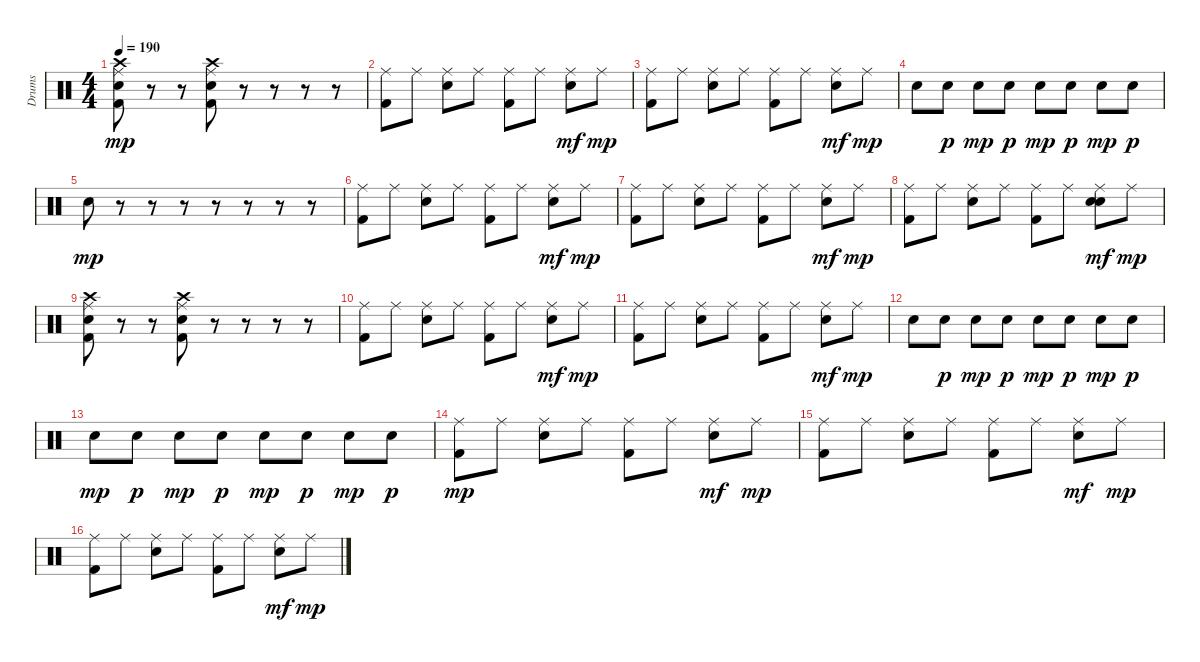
\track ("Drums" "Drums") {instrument percussion}
\staff {score}
\articulation defaults
\ts (4 4)
\tempo 190
\clef neutral
\ks c
("Ride (middle)" "Crash high (hit)" "Electric Snare (hit)" "Kick (hit) 2").8{dy mp} r.8 r.8 ("Ride (middle)" "Crash high (hit)" "Electric Snare (hit)" "Kick (hit) 2").8 r.8 r.8 r.8 r.8 |
("Ride (middle)" "Kick (hit) 2").8 "Ride (middle)".8 ("Ride (middle)" "Electric Snare (hit)").8 "Ride (middle)".8 ("Ride (middle)" "Kick (hit) 2").8 "Ride (middle)".8 ("Ride (middle)" "Electric Snare (hit)").8{dy mf} "Ride (middle)".8{dy mp} |
("Ride (middle)" "Kick (hit) 2").8 "Ride (middle)".8 ("Ride (middle)" "Electric Snare (hit)").8 "Ride (middle)".8 ("Ride (middle)" "Kick (hit) 2").8 "Ride (middle)".8 ("Ride (middle)" "Electric Snare (hit)").8{dy mf} "Ride (middle)".8{dy mp} |
"Electric Snare (hit)".8 "Electric Snare (hit)".8{dy p} "Electric Snare (hit)".8{dy mp} "Electric Snare (hit)".8{dy p} "Electric Snare (hit)".8{dy mp} "Electric Snare (hit)".8{dy p} "Electric Snare (hit)".8{dy mp} "Electric Snare (hit)".8{dy p} |
"Electric Snare (hit)".8{dy mp} r.8 r.8 r.8 r.8 r.8 r.8 r.8 |
("Ride (middle)" "Kick (hit) 2").8 "Ride (middle)".8 ("Ride (middle)" "Electric Snare (hit)").8 "Ride (middle)".8 ("Ride (middle)" "Kick (hit) 2").8 "Ride (middle)".8 ("Ride (middle)" "Electric Snare (hit)").8{dy mf} "Ride (middle)".8{dy mp} |
("Ride (middle)" "Kick (hit) 2").8 "Ride (middle)".8 ("Ride (middle)" "Electric Snare (hit)").8 "Ride (middle)".8 ("Ride (middle)" "Kick (hit) 2").8 "Ride (middle)".8 ("Ride (middle)" "Electric Snare (hit)").8{dy mf} "Ride (middle)".8{dy mp} |
("Ride (middle)" "Kick (hit) 2").8 "Ride (middle)".8 ("Ride (middle)" "Electric Snare (hit)").8 "Ride (middle)".8 ("Ride (middle)" "Kick (hit) 2").8 "Ride (middle)".8 ("Ride (middle)" "Electric Snare (hit)" "Snare (hit) 2").8{dy mf} "Ride (middle)".8{dy mp} |
("Ride (middle)" "Crash high (hit)" "Electric Snare (hit)" "Kick (hit) 2").8 r.8 r.8 ("Ride (middle)" "Crash high (hit)" "Electric Snare (hit)" "Kick (hit) 2").8 r.8 r.8 r.8 r.8 |
("Ride (middle)" "Kick (hit) 2").8 "Ride (middle)".8 ("Ride (middle)" "Electric Snare (hit)").8 "Ride (middle)".8 ("Ride (middle)" "Kick (hit) 2").8 "Ride (middle)".8 ("Ride (middle)" "Electric Snare (hit)").8{dy mf} "Ride (middle)".8{dy mp} |
("Ride (middle)" "Kick (hit) 2").8 "Ride (middle)".8 ("Ride (middle)" "Electric Snare (hit)").8 "Ride (middle)".8 ("Ride (middle)" "Kick (hit) 2").8 "Ride (middle)".8 ("Ride (middle)" "Electric Snare (hit)").8{dy mf} "Ride (middle)".8{dy mp} |
"Electric Snare (hit)".8 "Electric Snare (hit)".8{dy p} "Electric Snare (hit)".8{dy mp} "Electric Snare (hit)".8{dy p} "Electric Snare (hit)".8{dy mp} "Electric Snare (hit)".8{dy p} "Electric Snare (hit)".8{dy mp} "Electric Snare (hit)".8{dy p} |
"Electric Snare (hit)".8{dy mp} "Electric Snare (hit)".8{dy p} "Electric Snare (hit)".8{dy mp} "Electric Snare (hit)".8{dy p} "Electric Snare (hit)".8{dy mp} "Electric Snare (hit)".8{dy p} "Electric Snare (hit)".8{dy mp} "Electric Snare (hit)".8{dy p} |
("Ride (middle)" "Kick (hit) 2").8{dy mp} "Ride (middle)".8 ("Ride (middle)" "Electric Snare (hit)").8 "Ride (middle)".8 ("Ride (middle)" "Kick (hit) 2").8 "Ride (middle)".8 ("Ride (middle)" "Electric Snare (hit)").8{dy mf} "Ride (middle)".8{dy mp} |
("Ride (middle)" "Kick (hit) 2").8 "Ride (middle)".8 ("Ride (middle)" "Electric Snare (hit)").8 "Ride (middle)".8 ("Ride (middle)" "Kick (hit) 2").8 "Ride (middle)".8 ("Ride (middle)" "Electric Snare (hit)").8{dy mf} "Ride (middle)".8{dy mp} |
("Ride (middle)" "Kick (hit) 2").8 "Ride (middle)".8 ("Ride (middle)" "Electric Snare (hit)").8 "Ride (middle)".8 ("Ride (middle)" "Kick (hit) 2").8 "Ride (middle)".8 ("Ride (middle)" "Electric Snare (hit)").8{dy mf} "Ride (middle)".8{dy mp}
